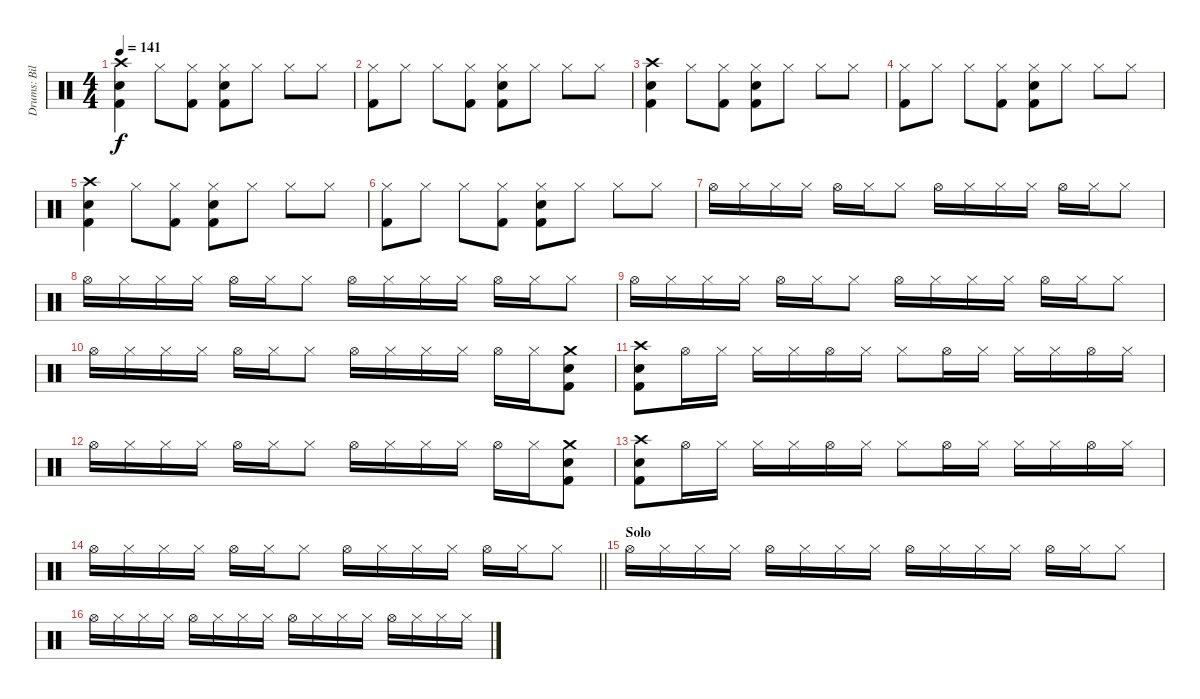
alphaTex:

\track ("Drums: Bill" "Drums: Bil") {instrument percussion}
\staff {score}
\articulation defaults
\ts (4 4)
\tempo 141
\clef neutral
\ks c
("Crash high (hit)" "Snare (hit) 2" "Kick (hit) 2").4{dy f} "Hi-Hat (closed)".8 ("Hi-Hat (closed)" "Kick (hit) 2").8 ("Hi-Hat (closed)" "Snare (hit) 2" "Kick (hit) 2").8 "Hi-Hat (closed)".8 "Hi-Hat (closed)".8 "Hi-Hat (closed)".8 |
("Hi-Hat (closed)" "Kick (hit) 2").8 "Hi-Hat (closed)".8 "Hi-Hat (closed)".8 ("Hi-Hat (closed)" "Kick (hit) 2").8 ("Hi-Hat (closed)" "Snare (hit) 2" "Kick (hit) 2").8 "Hi-Hat (closed)".8 "Hi-Hat (closed)".8 "Hi-Hat (closed)".8 |
("Crash high (hit)" "Snare (hit) 2" "Kick (hit) 2").4 "Hi-Hat (closed)".8 ("Hi-Hat (closed)" "Kick (hit) 2").8 ("Hi-Hat (closed)" "Snare (hit) 2" "Kick (hit) 2").8 "Hi-Hat (closed)".8 "Hi-Hat (closed)".8 "Hi-Hat (closed)".8 |
("Hi-Hat (closed)" "Kick (hit) 2").8 "Hi-Hat (closed)".8 "Hi-Hat (closed)".8 ("Hi-Hat (closed)" "Kick (hit) 2").8 ("Hi-Hat (closed)" "Snare (hit) 2" "Kick (hit) 2").8 "Hi-Hat (closed)".8 "Hi-Hat (closed)".8 "Hi-Hat (closed)".8 |
("Crash high (hit)" "Snare (hit) 2" "Kick (hit) 2").4 "Hi-Hat (closed)".8 ("Hi-Hat (closed)" "Kick (hit) 2").8 ("Hi-Hat (closed)" "Snare (hit) 2" "Kick (hit) 2").8 "Hi-Hat (closed)".8 "Hi-Hat (closed)".8 "Hi-Hat (closed)".8 |
("Hi-Hat (closed)" "Kick (hit) 2").8 "Hi-Hat (closed)".8 "Hi-Hat (closed)".8 ("Hi-Hat (closed)" "Kick (hit) 2").8 ("Hi-Hat (closed)" "Snare (hit) 2" "Kick (hit) 2").8 "Hi-Hat (closed)".8 "Hi-Hat (closed)".8 "Hi-Hat (closed)".8 |
"Hi-Hat (open)".16 "Hi-Hat (closed)".16 "Hi-Hat (closed)".16 "Hi-Hat (closed)".16 "Hi-Hat (open)".16 "Hi-Hat (closed)".16 "Hi-Hat (closed)".8 "Hi-Hat (open)".16 "Hi-Hat (closed)".16 "Hi-Hat (closed)".16 "Hi-Hat (closed)".16 "Hi-Hat (open)".16 "Hi-Hat (closed)".16 "Hi-Hat (closed)".8 |
"Hi-Hat (open)".16 "Hi-Hat (closed)".16 "Hi-Hat (closed)".16 "Hi-Hat (closed)".16 "Hi-Hat (open)".16 "Hi-Hat (closed)".16 "Hi-Hat (closed)".8 "Hi-Hat (open)".16 "Hi-Hat (closed)".16 "Hi-Hat (closed)".16 "Hi-Hat (closed)".16 "Hi-Hat (open)".16 "Hi-Hat (closed)".16 "Hi-Hat (closed)".8 |
"Hi-Hat (open)".16 "Hi-Hat (closed)".16 "Hi-Hat (closed)".16 "Hi-Hat (closed)".16 "Hi-Hat (open)".16 "Hi-Hat (closed)".16 "Hi-Hat (closed)".8 "Hi-Hat (open)".16 "Hi-Hat (closed)".16 "Hi-Hat (closed)".16 "Hi-Hat (closed)".16 "Hi-Hat (open)".16 "Hi-Hat (closed)".16 "Hi-Hat (closed)".8 |
"Hi-Hat (open)".16 "Hi-Hat (closed)".16 "Hi-Hat (closed)".16 "Hi-Hat (closed)".16 "Hi-Hat (open)".16 "Hi-Hat (closed)".16 "Hi-Hat (closed)".8 "Hi-Hat (open)".16 "Hi-Hat (closed)".16 "Hi-Hat (closed)".16 "Hi-Hat (closed)".16 "Hi-Hat (open)".16 "Hi-Hat (closed)".16 ("Crash medium (hit)" "Snare (hit) 2" "Kick (hit) 2").8 |
("Crash high (hit)" "Snare (hit) 2" "Kick (hit) 2").8 "Hi-Hat (open)".16 "Hi-Hat (closed)".16 "Hi-Hat (closed)".16 "Hi-Hat (closed)".16 "Hi-Hat (open)".16 "Hi-Hat (closed)".16 "Hi-Hat (closed)".8 "Hi-Hat (open)".16 "Hi-Hat (closed)".16 "Hi-Hat (closed)".16 "Hi-Hat (closed)".16 "Hi-Hat (open)".16 "Hi-Hat (closed)".16 |
"Hi-Hat (open)".16 "Hi-Hat (closed)".16 "Hi-Hat (closed)".16 "Hi-Hat (closed)".16 "Hi-Hat (open)".16 "Hi-Hat (closed)".16 "Hi-Hat (closed)".8 "Hi-Hat (open)".16 "Hi-Hat (closed)".16 "Hi-Hat (closed)".16 "Hi-Hat (closed)".16 "Hi-Hat (open)".16 "Hi-Hat (closed)".16 ("Crash medium (hit)" "Snare (hit) 2" "Kick (hit) 2").8 |
("Crash high (hit)" "Snare (hit) 2" "Kick (hit) 2").8 "Hi-Hat (open)".16 "Hi-Hat (closed)".16 "Hi-Hat (closed)".16 "Hi-Hat (closed)".16 "Hi-Hat (open)".16 "Hi-Hat (closed)".16 "Hi-Hat (closed)".8 "Hi-Hat (open)".16 "Hi-Hat (closed)".16 "Hi-Hat (closed)".16 "Hi-Hat (closed)".16 "Hi-Hat (open)".16 "Hi-Hat (closed)".16 |
\barLineRight lightlight "Hi-Hat (open)".16 "Hi-Hat (closed)".16 "Hi-Hat (closed)".16 "Hi-Hat (closed)".16 "Hi-Hat (open)".16 "Hi-Hat (closed)".16 "Hi-Hat (closed)".8 "Hi-Hat (open)".16 "Hi-Hat (closed)".16 "Hi-Hat (closed)".16 "Hi-Hat (closed)".16 "Hi-Hat (open)".16 "Hi-Hat (closed)".16 "Hi-Hat (closed)".8
|
\section ("" "Solo")
"Hi-Hat (open)".16 "Hi-Hat (closed)".16 "Hi-Hat (closed)".16 "Hi-Hat (closed)".16 "Hi-Hat (open)".16 "Hi-Hat (closed)".16 "Hi-Hat (closed)".16 "Hi-Hat (closed)".16 "Hi-Hat (open)".16 "Hi-Hat (closed)".16 "Hi-Hat (closed)".16 "Hi-Hat (closed)".16 "Hi-Hat (open)".16 "Hi-Hat (closed)".16 "Hi-Hat (closed)".8 |
"Hi-Hat (open)".16 "Hi-Hat (closed)".16 "Hi-Hat (closed)".16 "Hi-Hat (closed)".16 "Hi-Hat (open)".16 "Hi-Hat (closed)".16 "Hi-Hat (closed)".16 "Hi-Hat (closed)".16 "Hi-Hat (open)".16 "Hi-Hat (closed)".16 "Hi-Hat (closed)".16 "Hi-Hat (closed)".16 "Hi-Hat (open)".16 "Hi-Hat (closed)".16 "Hi-Hat (closed)".16 "Hi-Hat (closed)".16
